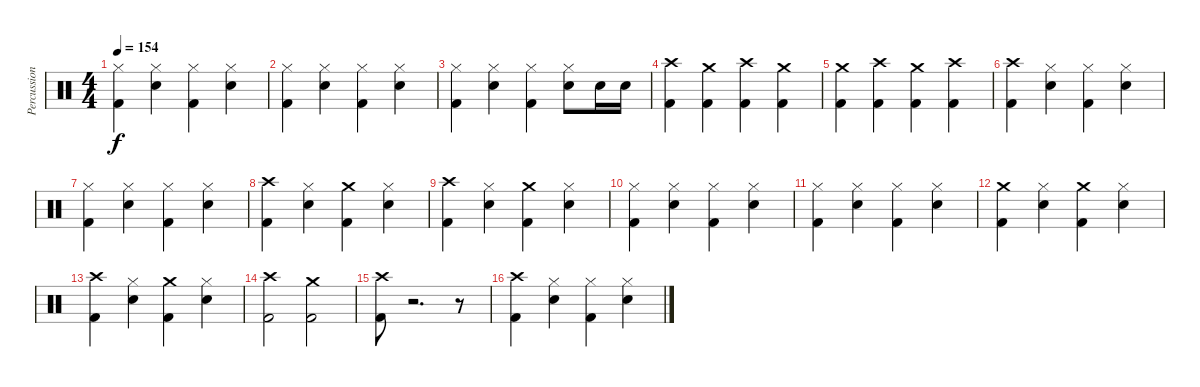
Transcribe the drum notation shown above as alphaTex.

\track ("Percussion" "Percussion") {instrument percussion}
\staff {score}
\articulation defaults
\ts (4 4)
\tempo 154
\clef neutral
\ks c
("Hi-Hat (closed)" "Kick (hit) 2").4{dy f} ("Hi-Hat (closed)" "Snare (hit) 2").4 ("Hi-Hat (closed)" "Kick (hit) 2").4 ("Hi-Hat (closed)" "Snare (hit) 2").4 |
("Hi-Hat (closed)" "Kick (hit) 2").4 ("Hi-Hat (closed)" "Snare (hit) 2").4 ("Hi-Hat (closed)" "Kick (hit) 2").4 ("Hi-Hat (closed)" "Snare (hit) 2").4 |
("Hi-Hat (closed)" "Kick (hit) 2").4 ("Hi-Hat (closed)" "Snare (hit) 2").4 ("Hi-Hat (closed)" "Kick (hit) 2").4 ("Hi-Hat (closed)" "Snare (hit) 2").8 "Snare (hit) 2".16 "Snare (hit) 2".16 |
("Crash high (hit)" "Kick (hit) 2").4 ("Crash medium (hit)" "Kick (hit) 2").4 ("Crash high (hit)" "Kick (hit) 2").4 ("Crash medium (hit)" "Kick (hit) 2").4 |
("Crash medium (hit)" "Kick (hit) 2").4 ("Crash high (hit)" "Kick (hit) 2").4 ("Crash medium (hit)" "Kick (hit) 2").4 ("Crash high (hit)" "Kick (hit) 2").4 |
("Crash high (hit)" "Kick (hit) 2").4 ("Hi-Hat (closed)" "Snare (hit) 2").4 ("Hi-Hat (closed)" "Kick (hit) 2").4 ("Hi-Hat (closed)" "Snare (hit) 2").4 |
("Hi-Hat (closed)" "Kick (hit) 2").4 ("Hi-Hat (closed)" "Snare (hit) 2").4 ("Hi-Hat (closed)" "Kick (hit) 2").4 ("Hi-Hat (closed)" "Snare (hit) 2").4 |
("Crash high (hit)" "Kick (hit) 2").4 ("Hi-Hat (closed)" "Snare (hit) 2").4 ("Crash medium (hit)" "Kick (hit) 2").4 ("Hi-Hat (closed)" "Snare (hit) 2").4 |
("Crash high (hit)" "Kick (hit) 2").4 ("Hi-Hat (closed)" "Snare (hit) 2").4 ("Crash medium (hit)" "Kick (hit) 2").4 ("Hi-Hat (closed)" "Snare (hit) 2").4 |
("Hi-Hat (closed)" "Kick (hit) 2").4 ("Hi-Hat (closed)" "Snare (hit) 2").4 ("Hi-Hat (closed)" "Kick (hit) 2").4 ("Hi-Hat (closed)" "Snare (hit) 2").4 |
("Hi-Hat (closed)" "Kick (hit) 2").4 ("Hi-Hat (closed)" "Snare (hit) 2").4 ("Hi-Hat (closed)" "Kick (hit) 2").4 ("Hi-Hat (closed)" "Snare (hit) 2").4 |
("Crash medium (hit)" "Kick (hit) 2").4 ("Hi-Hat (closed)" "Snare (hit) 2").4 ("Crash medium (hit)" "Kick (hit) 2").4 ("Hi-Hat (closed)" "Snare (hit) 2").4 |
("Crash high (hit)" "Kick (hit) 2").4 ("Hi-Hat (closed)" "Snare (hit) 2").4 ("Crash medium (hit)" "Kick (hit) 2").4 ("Hi-Hat (closed)" "Snare (hit) 2").4 |
("Crash high (hit)" "Kick (hit) 2").2 ("Crash medium (hit)" "Kick (hit) 2").2 |
("Crash high (hit)" "Kick (hit) 2").8 r.2{d} r.8 |
("Crash high (hit)" "Kick (hit) 2").4 ("Hi-Hat (closed)" "Snare (hit) 2").4 ("Hi-Hat (closed)" "Kick (hit) 2").4 ("Hi-Hat (closed)" "Snare (hit) 2").4
